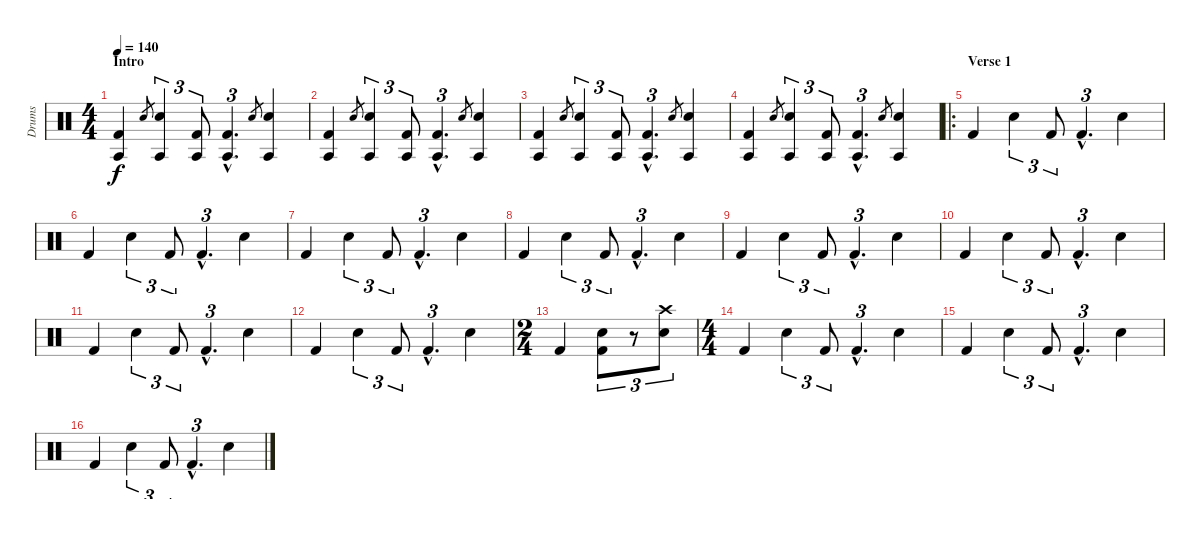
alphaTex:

\track ("Drums" "Drums") {instrument percussion}
\staff {score}
\articulation defaults
\ts (4 4)
\section ("" "Intro")
\tempo 140
\clef neutral
\ks c
("Agogo tow (hit)" "Kick (hit) 2").4{dy f} "Snare (hit) 2".8{gr} ("Agogo tow (hit)" "Snare (hit) 2").4{tu (3 2)} ("Agogo tow (hit)" "Kick (hit) 2").8{tu (3 2)} ("Agogo tow (hit)"{hac} "Kick (hit) 2"{hac}).4{d tu (3 2)} "Snare (hit) 2".8{gr} ("Agogo tow (hit)" "Snare (hit) 2").4 |
("Agogo tow (hit)" "Kick (hit) 2").4 "Snare (hit) 2".8{gr} ("Agogo tow (hit)" "Snare (hit) 2").4{tu (3 2)} ("Agogo tow (hit)" "Kick (hit) 2").8{tu (3 2)} ("Agogo tow (hit)"{hac} "Kick (hit) 2"{hac}).4{d tu (3 2)} "Snare (hit) 2".8{gr} ("Agogo tow (hit)" "Snare (hit) 2").4 |
("Agogo tow (hit)" "Kick (hit) 2").4 "Snare (hit) 2".8{gr} ("Agogo tow (hit)" "Snare (hit) 2").4{tu (3 2)} ("Agogo tow (hit)" "Kick (hit) 2").8{tu (3 2)} ("Agogo tow (hit)"{hac} "Kick (hit) 2"{hac}).4{d tu (3 2)} "Snare (hit) 2".8{gr} ("Agogo tow (hit)" "Snare (hit) 2").4 |
("Agogo tow (hit)" "Kick (hit) 2").4 "Snare (hit) 2".8{gr} ("Agogo tow (hit)" "Snare (hit) 2").4{tu (3 2)} ("Agogo tow (hit)" "Kick (hit) 2").8{tu (3 2)} ("Agogo tow (hit)"{hac} "Kick (hit) 2"{hac}).4{d tu (3 2)} "Snare (hit) 2".8{gr} ("Agogo tow (hit)" "Snare (hit) 2").4 |
\ro
\section ("" "Verse 1")
"Kick (hit) 2".4 "Snare (hit) 2".4{tu (3 2)} "Kick (hit) 2".8{tu (3 2)} "Kick (hit) 2"{hac}.4{d tu (3 2)} "Snare (hit) 2".4 |
"Kick (hit) 2".4 "Snare (hit) 2".4{tu (3 2)} "Kick (hit) 2".8{tu (3 2)} "Kick (hit) 2"{hac}.4{d tu (3 2)} "Snare (hit) 2".4 |
"Kick (hit) 2".4 "Snare (hit) 2".4{tu (3 2)} "Kick (hit) 2".8{tu (3 2)} "Kick (hit) 2"{hac}.4{d tu (3 2)} "Snare (hit) 2".4 |
"Kick (hit) 2".4 "Snare (hit) 2".4{tu (3 2)} "Kick (hit) 2".8{tu (3 2)} "Kick (hit) 2"{hac}.4{d tu (3 2)} "Snare (hit) 2".4 |
"Kick (hit) 2".4 "Snare (hit) 2".4{tu (3 2)} "Kick (hit) 2".8{tu (3 2)} "Kick (hit) 2"{hac}.4{d tu (3 2)} "Snare (hit) 2".4 |
"Kick (hit) 2".4 "Snare (hit) 2".4{tu (3 2)} "Kick (hit) 2".8{tu (3 2)} "Kick (hit) 2"{hac}.4{d tu (3 2)} "Snare (hit) 2".4 |
"Kick (hit) 2".4 "Snare (hit) 2".4{tu (3 2)} "Kick (hit) 2".8{tu (3 2)} "Kick (hit) 2"{hac}.4{d tu (3 2)} "Snare (hit) 2".4 |
"Kick (hit) 2".4 "Snare (hit) 2".4{tu (3 2)} "Kick (hit) 2".8{tu (3 2)} "Kick (hit) 2"{hac}.4{d tu (3 2)} "Snare (hit) 2".4 |
\ts (2 4)
"Kick (hit) 2".4 ("Snare (hit) 2" "Kick (hit) 2").8{tu (3 2)} r.8{tu (3 2)} ("Crash high (hit)" "Snare (hit) 2").8{tu (3 2)} |
\ts (4 4)
"Kick (hit) 2".4 "Snare (hit) 2".4{tu (3 2)} "Kick (hit) 2".8{tu (3 2)} "Kick (hit) 2"{hac}.4{d tu (3 2)} "Snare (hit) 2".4 |
"Kick (hit) 2".4 "Snare (hit) 2".4{tu (3 2)} "Kick (hit) 2".8{tu (3 2)} "Kick (hit) 2"{hac}.4{d tu (3 2)} "Snare (hit) 2".4 |
"Kick (hit) 2".4 "Snare (hit) 2".4{tu (3 2)} "Kick (hit) 2".8{tu (3 2)} "Kick (hit) 2"{hac}.4{d tu (3 2)} "Snare (hit) 2".4
